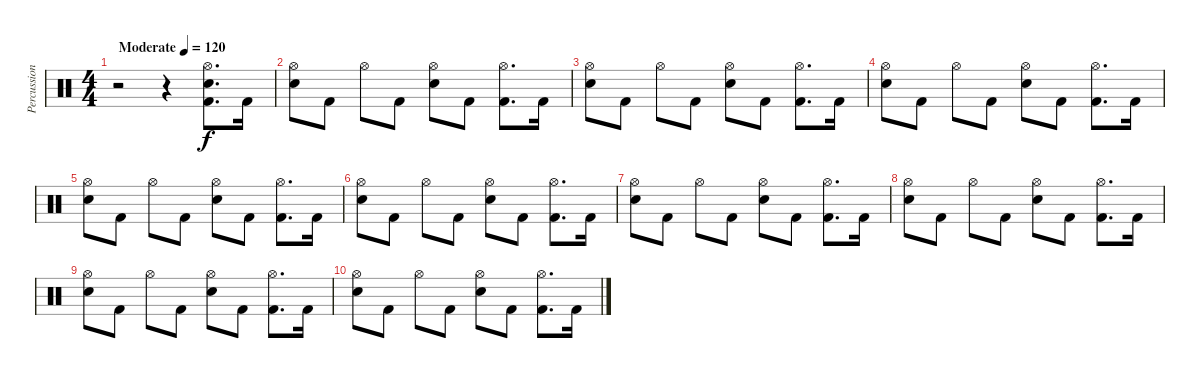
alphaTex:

\track ("Percussion" "Percussion") {instrument percussion}
\staff {score}
\articulation defaults
\ts (4 4)
\tempo (120 "Moderate")
\clef neutral
\ks c
r.2{dy f} r.4 ("Hi-Hat (open)" "Snare (hit) 2" "Kick (hit) 2").8{d} "Kick (hit) 2".16 |
("Hi-Hat (open)" "Snare (hit) 2").8 "Kick (hit) 2".8 "Hi-Hat (open)".8 "Kick (hit) 2".8 ("Hi-Hat (open)" "Snare (hit) 2").8 "Kick (hit) 2".8 ("Hi-Hat (open)" "Kick (hit) 2").8{d} "Kick (hit) 2".16 |
("Hi-Hat (open)" "Snare (hit) 2").8 "Kick (hit) 2".8 "Hi-Hat (open)".8 "Kick (hit) 2".8 ("Hi-Hat (open)" "Snare (hit) 2").8 "Kick (hit) 2".8 ("Hi-Hat (open)" "Kick (hit) 2").8{d} "Kick (hit) 2".16 |
("Hi-Hat (open)" "Snare (hit) 2").8 "Kick (hit) 2".8 "Hi-Hat (open)".8 "Kick (hit) 2".8 ("Hi-Hat (open)" "Snare (hit) 2").8 "Kick (hit) 2".8 ("Hi-Hat (open)" "Kick (hit) 2").8{d} "Kick (hit) 2".16 |
("Hi-Hat (open)" "Snare (hit) 2").8 "Kick (hit) 2".8 "Hi-Hat (open)".8 "Kick (hit) 2".8 ("Hi-Hat (open)" "Snare (hit) 2").8 "Kick (hit) 2".8 ("Hi-Hat (open)" "Kick (hit) 2").8{d} "Kick (hit) 2".16 |
("Hi-Hat (open)" "Snare (hit) 2").8 "Kick (hit) 2".8 "Hi-Hat (open)".8 "Kick (hit) 2".8 ("Hi-Hat (open)" "Snare (hit) 2").8 "Kick (hit) 2".8 ("Hi-Hat (open)" "Kick (hit) 2").8{d} "Kick (hit) 2".16 |
("Hi-Hat (open)" "Snare (hit) 2").8 "Kick (hit) 2".8 "Hi-Hat (open)".8 "Kick (hit) 2".8 ("Hi-Hat (open)" "Snare (hit) 2").8 "Kick (hit) 2".8 ("Hi-Hat (open)" "Kick (hit) 2").8{d} "Kick (hit) 2".16 |
("Hi-Hat (open)" "Snare (hit) 2").8 "Kick (hit) 2".8 "Hi-Hat (open)".8 "Kick (hit) 2".8 ("Hi-Hat (open)" "Snare (hit) 2").8 "Kick (hit) 2".8 ("Hi-Hat (open)" "Kick (hit) 2").8{d} "Kick (hit) 2".16 |
("Hi-Hat (open)" "Snare (hit) 2").8 "Kick (hit) 2".8 "Hi-Hat (open)".8 "Kick (hit) 2".8 ("Hi-Hat (open)" "Snare (hit) 2").8 "Kick (hit) 2".8 ("Hi-Hat (open)" "Kick (hit) 2").8{d} "Kick (hit) 2".16 |
("Hi-Hat (open)" "Snare (hit) 2").8 "Kick (hit) 2".8 "Hi-Hat (open)".8 "Kick (hit) 2".8 ("Hi-Hat (open)" "Snare (hit) 2").8 "Kick (hit) 2".8 ("Hi-Hat (open)" "Kick (hit) 2").8{d} "Kick (hit) 2".16
